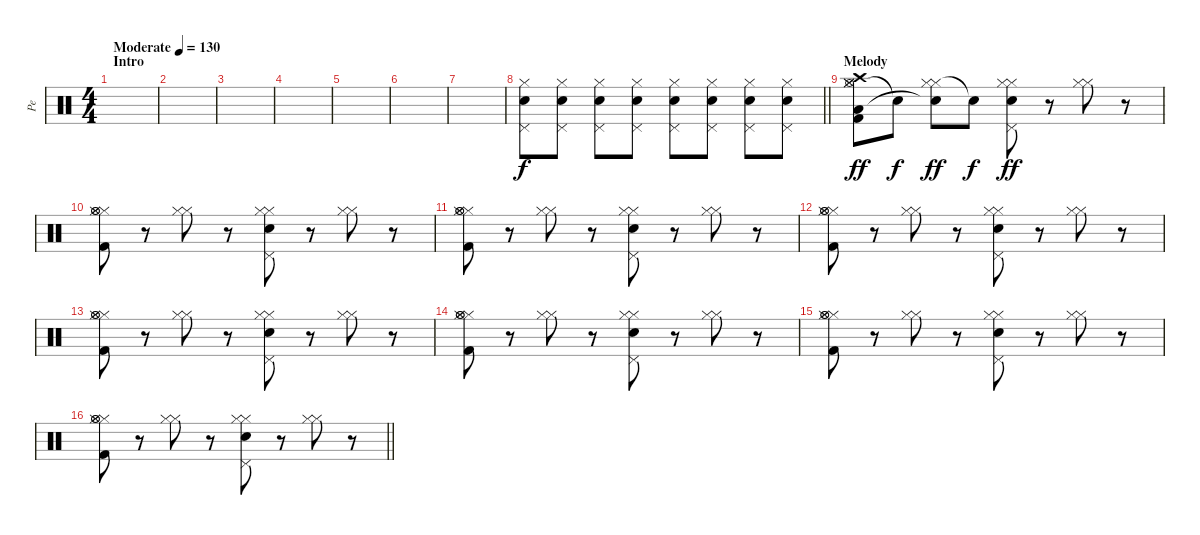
\track ("Pe" "Pe") {instrument percussion}
\staff {score}
\articulation defaults
\ts (4 4)
\section ("" "Intro")
\tempo (130 "Moderate")
\clef neutral
\ks c
|
|
|
|
|
|
|
\barLineRight lightlight
("Hi-Hat (closed)" "Electric Snare (hit)" "Pedal Hi-Hat (hit)").8{volume 6} ("Hi-Hat (closed)" "Electric Snare (hit)" "Pedal Hi-Hat (hit)").8{volume 7} ("Hi-Hat (closed)" "Electric Snare (hit)" "Pedal Hi-Hat (hit)").8{volume 8} ("Hi-Hat (closed)" "Electric Snare (hit)" "Pedal Hi-Hat (hit)").8{volume 9} ("Hi-Hat (closed)" "Electric Snare (hit)" "Pedal Hi-Hat (hit)").8{volume 10} ("Hi-Hat (closed)" "Electric Snare (hit)" "Pedal Hi-Hat (hit)").8{volume 11} ("Hi-Hat (closed)" "Electric Snare (hit)" "Pedal Hi-Hat (hit)").8{volume 12} ("Hi-Hat (closed)" "Electric Snare (hit)" "Pedal Hi-Hat (hit)").8{volume 13} |
\section ("" "Melody")
("Hi-Hat (closed)" "Hi-Hat (closed)" "Low Floor Tom (hit)" "Hi-Hat (open)" "Crash high (hit)" "Kick (hit) 2").8{dy ff volume 12} "Snare (hit)"{t}.8{dy f} ("Hi-Hat (closed)" "Hi-Hat (closed)" "Snare (hit)"{t}).8{dy ff} "Snare (hit)"{t}.8{dy f} ("Hi-Hat (closed)" "Hi-Hat (closed)" "Pedal Hi-Hat (hit)" "Electric Snare (hit)").8{dy ff} r.8 ("Hi-Hat (closed)" "Hi-Hat (closed)").8 r.8 |
("Hi-Hat (closed)" "Hi-Hat (closed)" "Hi-Hat (open)" "Hi-Hat (open)" "Kick (hit) 2").8 r.8 ("Hi-Hat (closed)" "Hi-Hat (closed)").8 r.8 ("Hi-Hat (closed)" "Hi-Hat (closed)" "Pedal Hi-Hat (hit)" "Electric Snare (hit)").8 r.8 ("Hi-Hat (closed)" "Hi-Hat (closed)").8 r.8 |
("Hi-Hat (closed)" "Hi-Hat (closed)" "Hi-Hat (open)" "Hi-Hat (open)" "Kick (hit) 2").8 r.8 ("Hi-Hat (closed)" "Hi-Hat (closed)").8 r.8 ("Hi-Hat (closed)" "Hi-Hat (closed)" "Pedal Hi-Hat (hit)" "Electric Snare (hit)").8 r.8 ("Hi-Hat (closed)" "Hi-Hat (closed)").8 r.8 |
("Hi-Hat (closed)" "Hi-Hat (closed)" "Hi-Hat (open)" "Hi-Hat (open)" "Kick (hit) 2").8 r.8 ("Hi-Hat (closed)" "Hi-Hat (closed)").8 r.8 ("Hi-Hat (closed)" "Hi-Hat (closed)" "Pedal Hi-Hat (hit)" "Electric Snare (hit)").8 r.8 ("Hi-Hat (closed)" "Hi-Hat (closed)").8 r.8 |
("Hi-Hat (closed)" "Hi-Hat (closed)" "Hi-Hat (open)" "Hi-Hat (open)" "Kick (hit) 2").8 r.8 ("Hi-Hat (closed)" "Hi-Hat (closed)").8 r.8 ("Hi-Hat (closed)" "Hi-Hat (closed)" "Pedal Hi-Hat (hit)" "Electric Snare (hit)").8 r.8 ("Hi-Hat (closed)" "Hi-Hat (closed)").8 r.8 |
("Hi-Hat (closed)" "Hi-Hat (closed)" "Hi-Hat (open)" "Hi-Hat (open)" "Kick (hit) 2").8 r.8 ("Hi-Hat (closed)" "Hi-Hat (closed)").8 r.8 ("Hi-Hat (closed)" "Hi-Hat (closed)" "Pedal Hi-Hat (hit)" "Electric Snare (hit)").8 r.8 ("Hi-Hat (closed)" "Hi-Hat (closed)").8 r.8 |
("Hi-Hat (closed)" "Hi-Hat (closed)" "Hi-Hat (open)" "Hi-Hat (open)" "Kick (hit) 2").8 r.8 ("Hi-Hat (closed)" "Hi-Hat (closed)").8 r.8 ("Hi-Hat (closed)" "Hi-Hat (closed)" "Pedal Hi-Hat (hit)" "Electric Snare (hit)").8 r.8 ("Hi-Hat (closed)" "Hi-Hat (closed)").8 r.8 |
\barLineRight lightlight
("Hi-Hat (closed)" "Hi-Hat (closed)" "Hi-Hat (open)" "Hi-Hat (open)" "Kick (hit) 2").8 r.8 ("Hi-Hat (closed)" "Hi-Hat (closed)").8 r.8 ("Hi-Hat (closed)" "Hi-Hat (closed)" "Pedal Hi-Hat (hit)" "Electric Snare (hit)").8 r.8 ("Hi-Hat (closed)" "Hi-Hat (closed)").8 r.8
